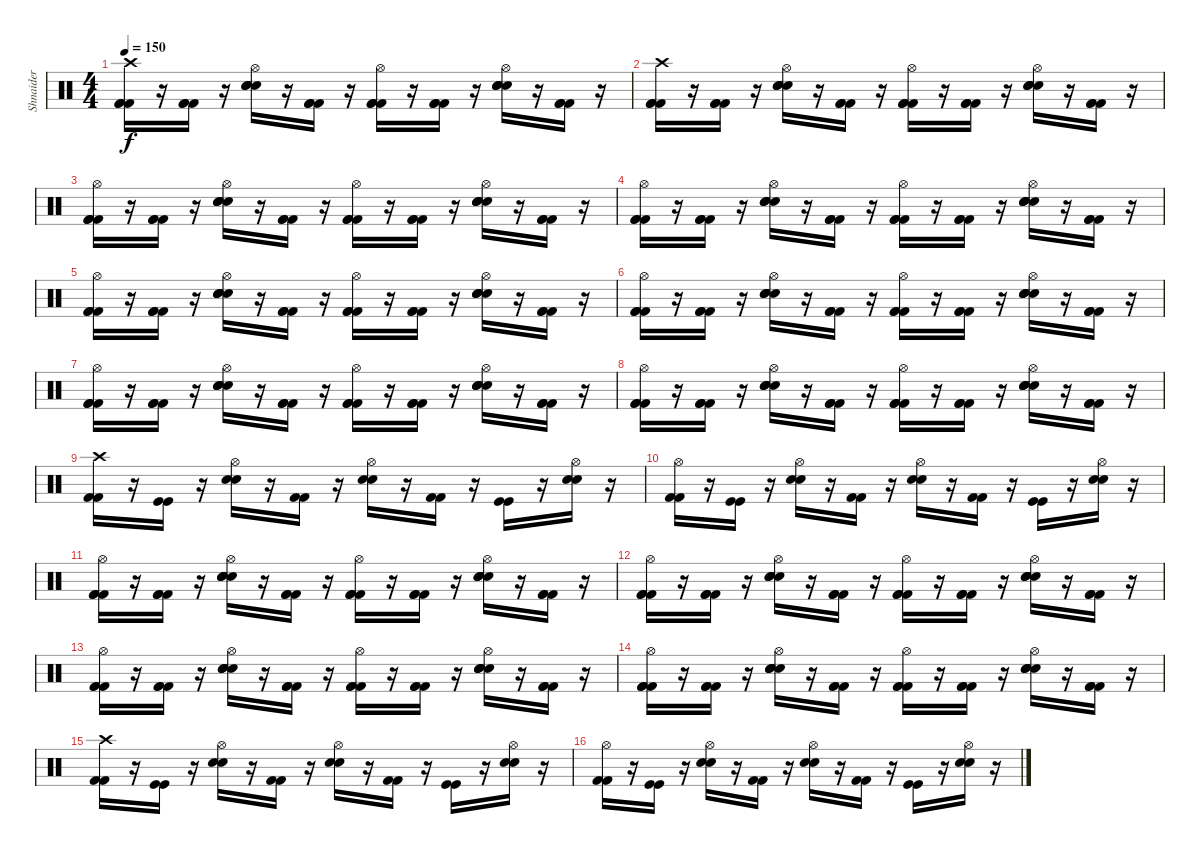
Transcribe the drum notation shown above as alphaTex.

\track ("Shnaider" "Shnaider") {instrument percussion}
\staff {score}
\articulation defaults
\ts (4 4)
\tempo 150
\clef neutral
\ks c
("Kick (hit) 2" "Kick (hit) 2" "Kick (hit) 2" "Crash high (hit)").16{dy f} r.16 ("Kick (hit) 2" "Kick (hit) 2" "Kick (hit) 2").16 r.16 ("Electric Snare (hit)" "Electric Snare (hit)" "Electric Snare (hit)" "Electric Snare (hit)" "Hi-Hat (open)").16 r.16 ("Kick (hit) 2" "Kick (hit) 2" "Kick (hit) 2").16 r.16 ("Kick (hit) 2" "Kick (hit) 2" "Kick (hit) 2" "Hi-Hat (open)").16 r.16 ("Kick (hit) 2" "Kick (hit) 2" "Kick (hit) 2").16 r.16 ("Electric Snare (hit)" "Electric Snare (hit)" "Electric Snare (hit)" "Electric Snare (hit)" "Hi-Hat (open)").16 r.16 ("Kick (hit) 2" "Kick (hit) 2" "Kick (hit) 2").16 r.16 |
("Kick (hit) 2" "Kick (hit) 2" "Kick (hit) 2" "Crash high (hit)").16 r.16 ("Kick (hit) 2" "Kick (hit) 2" "Kick (hit) 2").16 r.16 ("Electric Snare (hit)" "Electric Snare (hit)" "Electric Snare (hit)" "Electric Snare (hit)" "Hi-Hat (open)").16 r.16 ("Kick (hit) 2" "Kick (hit) 2" "Kick (hit) 2").16 r.16 ("Kick (hit) 2" "Kick (hit) 2" "Kick (hit) 2" "Hi-Hat (open)").16 r.16 ("Kick (hit) 2" "Kick (hit) 2" "Kick (hit) 2").16 r.16 ("Electric Snare (hit)" "Electric Snare (hit)" "Electric Snare (hit)" "Electric Snare (hit)" "Hi-Hat (open)").16 r.16 ("Kick (hit) 2" "Kick (hit) 2" "Kick (hit) 2").16 r.16 |
("Kick (hit) 2" "Kick (hit) 2" "Kick (hit) 2" "Hi-Hat (open)").16 r.16 ("Kick (hit) 2" "Kick (hit) 2" "Kick (hit) 2").16 r.16 ("Electric Snare (hit)" "Electric Snare (hit)" "Electric Snare (hit)" "Electric Snare (hit)" "Hi-Hat (open)").16 r.16 ("Kick (hit) 2" "Kick (hit) 2" "Kick (hit) 2").16 r.16 ("Kick (hit) 2" "Kick (hit) 2" "Kick (hit) 2" "Hi-Hat (open)").16 r.16 ("Kick (hit) 2" "Kick (hit) 2" "Kick (hit) 2").16 r.16 ("Electric Snare (hit)" "Electric Snare (hit)" "Electric Snare (hit)" "Electric Snare (hit)" "Hi-Hat (open)").16 r.16 ("Kick (hit) 2" "Kick (hit) 2" "Kick (hit) 2").16 r.16 |
("Kick (hit) 2" "Kick (hit) 2" "Kick (hit) 2" "Hi-Hat (open)").16 r.16 ("Kick (hit) 2" "Kick (hit) 2" "Kick (hit) 2").16 r.16 ("Electric Snare (hit)" "Electric Snare (hit)" "Electric Snare (hit)" "Electric Snare (hit)" "Hi-Hat (open)").16 r.16 ("Kick (hit) 2" "Kick (hit) 2" "Kick (hit) 2").16 r.16 ("Kick (hit) 2" "Kick (hit) 2" "Kick (hit) 2" "Hi-Hat (open)").16 r.16 ("Kick (hit) 2" "Kick (hit) 2" "Kick (hit) 2").16 r.16 ("Electric Snare (hit)" "Electric Snare (hit)" "Electric Snare (hit)" "Electric Snare (hit)" "Hi-Hat (open)").16 r.16 ("Kick (hit) 2" "Kick (hit) 2" "Kick (hit) 2").16 r.16 |
("Kick (hit) 2" "Kick (hit) 2" "Kick (hit) 2" "Hi-Hat (open)").16 r.16 ("Kick (hit) 2" "Kick (hit) 2" "Kick (hit) 2").16 r.16 ("Electric Snare (hit)" "Electric Snare (hit)" "Electric Snare (hit)" "Electric Snare (hit)" "Hi-Hat (open)").16 r.16 ("Kick (hit) 2" "Kick (hit) 2" "Kick (hit) 2").16 r.16 ("Kick (hit) 2" "Kick (hit) 2" "Kick (hit) 2" "Hi-Hat (open)").16 r.16 ("Kick (hit) 2" "Kick (hit) 2" "Kick (hit) 2").16 r.16 ("Electric Snare (hit)" "Electric Snare (hit)" "Electric Snare (hit)" "Electric Snare (hit)" "Hi-Hat (open)").16 r.16 ("Kick (hit) 2" "Kick (hit) 2" "Kick (hit) 2").16 r.16 |
("Kick (hit) 2" "Kick (hit) 2" "Kick (hit) 2" "Hi-Hat (open)").16 r.16 ("Kick (hit) 2" "Kick (hit) 2" "Kick (hit) 2").16 r.16 ("Electric Snare (hit)" "Electric Snare (hit)" "Electric Snare (hit)" "Electric Snare (hit)" "Hi-Hat (open)").16 r.16 ("Kick (hit) 2" "Kick (hit) 2" "Kick (hit) 2").16 r.16 ("Kick (hit) 2" "Kick (hit) 2" "Kick (hit) 2" "Hi-Hat (open)").16 r.16 ("Kick (hit) 2" "Kick (hit) 2" "Kick (hit) 2").16 r.16 ("Electric Snare (hit)" "Electric Snare (hit)" "Electric Snare (hit)" "Electric Snare (hit)" "Hi-Hat (open)").16 r.16 ("Kick (hit) 2" "Kick (hit) 2" "Kick (hit) 2").16 r.16 |
("Kick (hit) 2" "Kick (hit) 2" "Kick (hit) 2" "Hi-Hat (open)").16 r.16 ("Kick (hit) 2" "Kick (hit) 2" "Kick (hit) 2").16 r.16 ("Electric Snare (hit)" "Electric Snare (hit)" "Electric Snare (hit)" "Electric Snare (hit)" "Hi-Hat (open)").16 r.16 ("Kick (hit) 2" "Kick (hit) 2" "Kick (hit) 2").16 r.16 ("Kick (hit) 2" "Kick (hit) 2" "Kick (hit) 2" "Hi-Hat (open)").16 r.16 ("Kick (hit) 2" "Kick (hit) 2" "Kick (hit) 2").16 r.16 ("Electric Snare (hit)" "Electric Snare (hit)" "Electric Snare (hit)" "Electric Snare (hit)" "Hi-Hat (open)").16 r.16 ("Kick (hit) 2" "Kick (hit) 2" "Kick (hit) 2").16 r.16 |
("Kick (hit) 2" "Kick (hit) 2" "Kick (hit) 2" "Hi-Hat (open)").16 r.16 ("Kick (hit) 2" "Kick (hit) 2" "Kick (hit) 2").16 r.16 ("Electric Snare (hit)" "Electric Snare (hit)" "Electric Snare (hit)" "Electric Snare (hit)" "Hi-Hat (open)").16 r.16 ("Kick (hit) 2" "Kick (hit) 2" "Kick (hit) 2").16 r.16 ("Kick (hit) 2" "Kick (hit) 2" "Kick (hit) 2" "Hi-Hat (open)").16 r.16 ("Kick (hit) 2" "Kick (hit) 2" "Kick (hit) 2").16 r.16 ("Electric Snare (hit)" "Electric Snare (hit)" "Electric Snare (hit)" "Electric Snare (hit)" "Hi-Hat (open)").16 r.16 ("Kick (hit) 2" "Kick (hit) 2" "Kick (hit) 2").16 r.16 |
("Kick (hit) 2" "Kick (hit) 2" "Crash high (hit)").16 r.16 ("Kick (hit)" "Kick (hit)").16 r.16 ("Electric Snare (hit)" "Electric Snare (hit)" "Hi-Hat (open)").16 r.16 ("Kick (hit) 2" "Kick (hit) 2").16 r.16 ("Electric Snare (hit)" "Electric Snare (hit)" "Hi-Hat (open)").16 r.16 ("Kick (hit) 2" "Kick (hit) 2").16 r.16 ("Kick (hit)" "Kick (hit)").16 r.16 ("Electric Snare (hit)" "Electric Snare (hit)" "Hi-Hat (open)").16 r.16 |
("Kick (hit) 2" "Kick (hit) 2" "Hi-Hat (open)").16 r.16 ("Kick (hit)" "Kick (hit)").16 r.16 ("Electric Snare (hit)" "Electric Snare (hit)" "Hi-Hat (open)").16 r.16 ("Kick (hit) 2" "Kick (hit) 2").16 r.16 ("Electric Snare (hit)" "Electric Snare (hit)" "Hi-Hat (open)").16 r.16 ("Kick (hit) 2" "Kick (hit) 2").16 r.16 ("Kick (hit)" "Kick (hit)").16 r.16 ("Electric Snare (hit)" "Electric Snare (hit)" "Hi-Hat (open)").16 r.16 |
("Kick (hit) 2" "Kick (hit) 2" "Kick (hit) 2" "Hi-Hat (open)").16 r.16 ("Kick (hit) 2" "Kick (hit) 2" "Kick (hit) 2").16 r.16 ("Electric Snare (hit)" "Electric Snare (hit)" "Electric Snare (hit)" "Electric Snare (hit)" "Hi-Hat (open)").16 r.16 ("Kick (hit) 2" "Kick (hit) 2" "Kick (hit) 2").16 r.16 ("Kick (hit) 2" "Kick (hit) 2" "Kick (hit) 2" "Hi-Hat (open)").16 r.16 ("Kick (hit) 2" "Kick (hit) 2" "Kick (hit) 2").16 r.16 ("Electric Snare (hit)" "Electric Snare (hit)" "Electric Snare (hit)" "Electric Snare (hit)" "Hi-Hat (open)").16 r.16 ("Kick (hit) 2" "Kick (hit) 2" "Kick (hit) 2").16 r.16 |
("Kick (hit) 2" "Kick (hit) 2" "Kick (hit) 2" "Hi-Hat (open)").16 r.16 ("Kick (hit) 2" "Kick (hit) 2" "Kick (hit) 2").16 r.16 ("Electric Snare (hit)" "Electric Snare (hit)" "Electric Snare (hit)" "Electric Snare (hit)" "Hi-Hat (open)").16 r.16 ("Kick (hit) 2" "Kick (hit) 2" "Kick (hit) 2").16 r.16 ("Kick (hit) 2" "Kick (hit) 2" "Kick (hit) 2" "Hi-Hat (open)").16 r.16 ("Kick (hit) 2" "Kick (hit) 2" "Kick (hit) 2").16 r.16 ("Electric Snare (hit)" "Electric Snare (hit)" "Electric Snare (hit)" "Electric Snare (hit)" "Hi-Hat (open)").16 r.16 ("Kick (hit) 2" "Kick (hit) 2" "Kick (hit) 2").16 r.16 |
("Kick (hit) 2" "Kick (hit) 2" "Kick (hit) 2" "Hi-Hat (open)").16 r.16 ("Kick (hit) 2" "Kick (hit) 2" "Kick (hit) 2").16 r.16 ("Electric Snare (hit)" "Electric Snare (hit)" "Electric Snare (hit)" "Electric Snare (hit)" "Hi-Hat (open)").16 r.16 ("Kick (hit) 2" "Kick (hit) 2" "Kick (hit) 2").16 r.16 ("Kick (hit) 2" "Kick (hit) 2" "Kick (hit) 2" "Hi-Hat (open)").16 r.16 ("Kick (hit) 2" "Kick (hit) 2" "Kick (hit) 2").16 r.16 ("Electric Snare (hit)" "Electric Snare (hit)" "Electric Snare (hit)" "Electric Snare (hit)" "Hi-Hat (open)").16 r.16 ("Kick (hit) 2" "Kick (hit) 2" "Kick (hit) 2").16 r.16 |
("Kick (hit) 2" "Kick (hit) 2" "Kick (hit) 2" "Hi-Hat (open)").16 r.16 ("Kick (hit) 2" "Kick (hit) 2" "Kick (hit) 2").16 r.16 ("Electric Snare (hit)" "Electric Snare (hit)" "Electric Snare (hit)" "Electric Snare (hit)" "Hi-Hat (open)").16 r.16 ("Kick (hit) 2" "Kick (hit) 2" "Kick (hit) 2").16 r.16 ("Kick (hit) 2" "Kick (hit) 2" "Kick (hit) 2" "Hi-Hat (open)").16 r.16 ("Kick (hit) 2" "Kick (hit) 2" "Kick (hit) 2").16 r.16 ("Electric Snare (hit)" "Electric Snare (hit)" "Electric Snare (hit)" "Electric Snare (hit)" "Hi-Hat (open)").16 r.16 ("Kick (hit) 2" "Kick (hit) 2" "Kick (hit) 2").16 r.16 |
("Kick (hit) 2" "Kick (hit) 2" "Crash high (hit)").16 r.16 ("Kick (hit)" "Kick (hit)").16 r.16 ("Electric Snare (hit)" "Electric Snare (hit)" "Hi-Hat (open)").16 r.16 ("Kick (hit) 2" "Kick (hit) 2").16 r.16 ("Electric Snare (hit)" "Electric Snare (hit)" "Hi-Hat (open)").16 r.16 ("Kick (hit) 2" "Kick (hit) 2").16 r.16 ("Kick (hit)" "Kick (hit)").16 r.16 ("Electric Snare (hit)" "Electric Snare (hit)" "Hi-Hat (open)").16 r.16 |
("Kick (hit) 2" "Kick (hit) 2" "Hi-Hat (open)").16 r.16 ("Kick (hit)" "Kick (hit)").16 r.16 ("Electric Snare (hit)" "Electric Snare (hit)" "Hi-Hat (open)").16 r.16 ("Kick (hit) 2" "Kick (hit) 2").16 r.16 ("Electric Snare (hit)" "Electric Snare (hit)" "Hi-Hat (open)").16 r.16 ("Kick (hit) 2" "Kick (hit) 2").16 r.16 ("Kick (hit)" "Kick (hit)").16 r.16 ("Electric Snare (hit)" "Electric Snare (hit)" "Hi-Hat (open)").16 r.16
